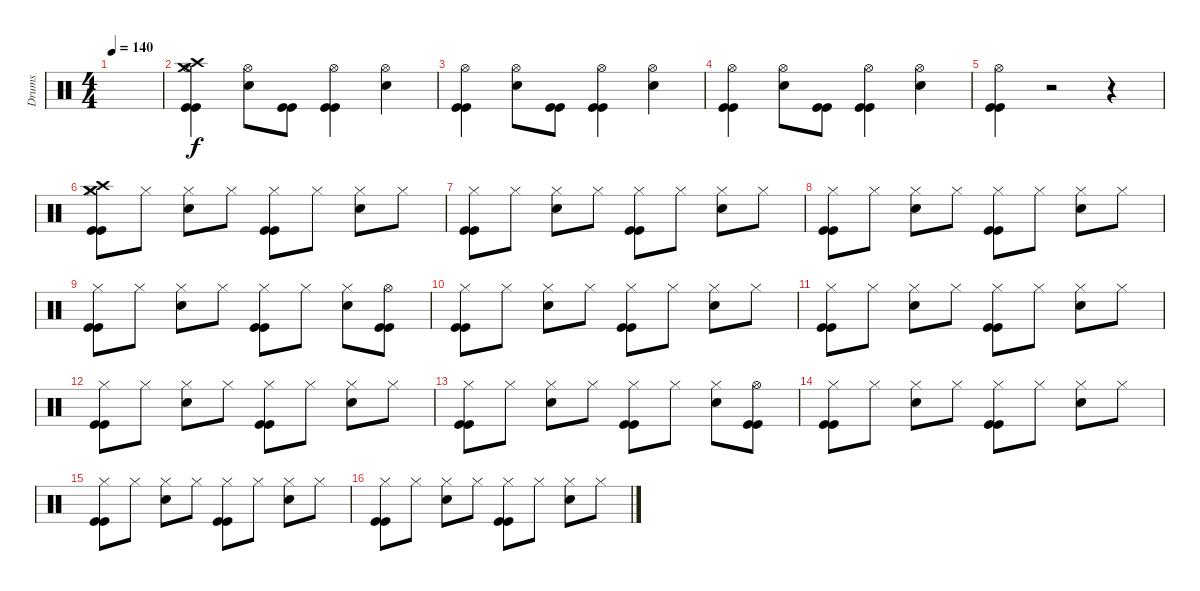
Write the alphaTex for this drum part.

\track ("Drums" "Drums") {instrument percussion}
\staff {score}
\articulation defaults
\ts (4 4)
\tempo 140
\clef neutral
\ks c
|
("Hi-Hat (open)" "Crash high (hit)" "Crash medium (hit)" "Kick (hit)" "Kick (hit)").4 ("Hi-Hat (open)" "Snare (hit) 2").8 ("Kick (hit)" "Kick (hit)").8 ("Hi-Hat (open)" "Kick (hit)" "Kick (hit)").4 ("Hi-Hat (open)" "Snare (hit) 2").4 |
("Hi-Hat (open)" "Kick (hit)" "Kick (hit)").4 ("Hi-Hat (open)" "Snare (hit) 2").8 ("Kick (hit)" "Kick (hit)").8 ("Hi-Hat (open)" "Kick (hit)" "Kick (hit)").4 ("Hi-Hat (open)" "Snare (hit) 2").4 |
("Hi-Hat (open)" "Kick (hit)" "Kick (hit)").4 ("Hi-Hat (open)" "Snare (hit) 2").8 ("Kick (hit)" "Kick (hit)").8 ("Hi-Hat (open)" "Kick (hit)" "Kick (hit)").4 ("Hi-Hat (open)" "Snare (hit) 2").4 |
("Hi-Hat (open)" "Kick (hit)" "Kick (hit)").4 r.2 r.4 |
("Hi-Hat (closed)" "Crash high (hit)" "Crash medium (hit)" "Kick (hit)" "Kick (hit)").8 "Hi-Hat (closed)".8 ("Hi-Hat (closed)" "Snare (hit) 2").8 "Hi-Hat (closed)".8 ("Hi-Hat (closed)" "Kick (hit)" "Kick (hit)").8 "Hi-Hat (closed)".8 ("Hi-Hat (closed)" "Snare (hit) 2").8 "Hi-Hat (closed)".8 |
("Hi-Hat (closed)" "Kick (hit)" "Kick (hit)").8 "Hi-Hat (closed)".8 ("Hi-Hat (closed)" "Snare (hit) 2").8 "Hi-Hat (closed)".8 ("Hi-Hat (closed)" "Kick (hit)" "Kick (hit)").8 "Hi-Hat (closed)".8 ("Hi-Hat (closed)" "Snare (hit) 2").8 "Hi-Hat (closed)".8 |
("Hi-Hat (closed)" "Kick (hit)" "Kick (hit)").8 "Hi-Hat (closed)".8 ("Hi-Hat (closed)" "Snare (hit) 2").8 "Hi-Hat (closed)".8 ("Hi-Hat (closed)" "Kick (hit)" "Kick (hit)").8 "Hi-Hat (closed)".8 ("Hi-Hat (closed)" "Snare (hit) 2").8 "Hi-Hat (closed)".8 |
("Hi-Hat (closed)" "Kick (hit)" "Kick (hit)").8 "Hi-Hat (closed)".8 ("Hi-Hat (closed)" "Snare (hit) 2").8 "Hi-Hat (closed)".8 ("Hi-Hat (closed)" "Kick (hit)" "Kick (hit)").8 "Hi-Hat (closed)".8 ("Hi-Hat (closed)" "Snare (hit) 2").8 ("Hi-Hat (open)" "Kick (hit)" "Kick (hit)").8 |
("Hi-Hat (closed)" "Kick (hit)" "Kick (hit)").8 "Hi-Hat (closed)".8 ("Hi-Hat (closed)" "Snare (hit) 2").8 "Hi-Hat (closed)".8 ("Hi-Hat (closed)" "Kick (hit)" "Kick (hit)").8 "Hi-Hat (closed)".8 ("Hi-Hat (closed)" "Snare (hit) 2").8 "Hi-Hat (closed)".8 |
("Hi-Hat (closed)" "Kick (hit)" "Kick (hit)").8 "Hi-Hat (closed)".8 ("Hi-Hat (closed)" "Snare (hit) 2").8 "Hi-Hat (closed)".8 ("Hi-Hat (closed)" "Kick (hit)" "Kick (hit)").8 "Hi-Hat (closed)".8 ("Hi-Hat (closed)" "Snare (hit) 2").8 "Hi-Hat (closed)".8 |
("Hi-Hat (closed)" "Kick (hit)" "Kick (hit)").8 "Hi-Hat (closed)".8 ("Hi-Hat (closed)" "Snare (hit) 2").8 "Hi-Hat (closed)".8 ("Hi-Hat (closed)" "Kick (hit)" "Kick (hit)").8 "Hi-Hat (closed)".8 ("Hi-Hat (closed)" "Snare (hit) 2").8 "Hi-Hat (closed)".8 |
("Hi-Hat (closed)" "Kick (hit)" "Kick (hit)").8 "Hi-Hat (closed)".8 ("Hi-Hat (closed)" "Snare (hit) 2").8 "Hi-Hat (closed)".8 ("Hi-Hat (closed)" "Kick (hit)" "Kick (hit)").8 "Hi-Hat (closed)".8 ("Hi-Hat (closed)" "Snare (hit) 2").8 ("Hi-Hat (open)" "Kick (hit)" "Kick (hit)").8 |
("Hi-Hat (closed)" "Kick (hit)" "Kick (hit)").8 "Hi-Hat (closed)".8 ("Hi-Hat (closed)" "Snare (hit) 2").8 "Hi-Hat (closed)".8 ("Hi-Hat (closed)" "Kick (hit)" "Kick (hit)").8 "Hi-Hat (closed)".8 ("Hi-Hat (closed)" "Snare (hit) 2").8 "Hi-Hat (closed)".8 |
("Hi-Hat (closed)" "Kick (hit)" "Kick (hit)").8 "Hi-Hat (closed)".8 ("Hi-Hat (closed)" "Snare (hit) 2").8 "Hi-Hat (closed)".8 ("Hi-Hat (closed)" "Kick (hit)" "Kick (hit)").8 "Hi-Hat (closed)".8 ("Hi-Hat (closed)" "Snare (hit) 2").8 "Hi-Hat (closed)".8 |
("Hi-Hat (closed)" "Kick (hit)" "Kick (hit)").8 "Hi-Hat (closed)".8 ("Hi-Hat (closed)" "Snare (hit) 2").8 "Hi-Hat (closed)".8 ("Hi-Hat (closed)" "Kick (hit)" "Kick (hit)").8 "Hi-Hat (closed)".8 ("Hi-Hat (closed)" "Snare (hit) 2").8 "Hi-Hat (closed)".8
